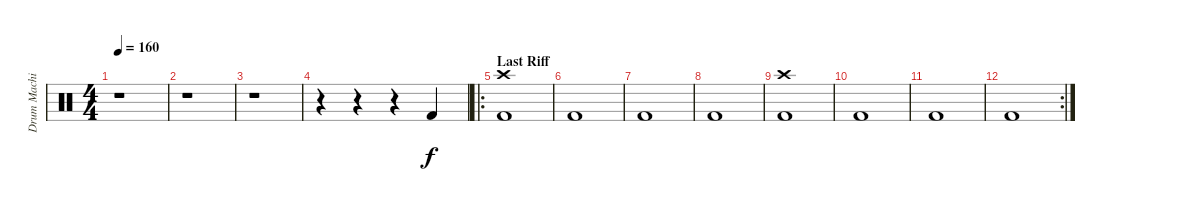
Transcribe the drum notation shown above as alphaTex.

\track ("Drum Machine" "Drum Machi") {instrument percussion}
\staff {score}
\articulation defaults
\ts (4 4)
\tempo 160
\clef neutral
\ks c
r.1{dy f} |
r.1 |
r.1 |
r.4 r.4 r.4 "Kick (hit) 2".4 |
\ro
\section ("" "Last Riff")
("Kick (hit) 2" "Crash high (hit)").1 |
"Kick (hit) 2".1 |
"Kick (hit) 2".1 |
"Kick (hit) 2".1 |
("Kick (hit) 2" "Crash high (hit)").1 |
"Kick (hit) 2".1 |
"Kick (hit) 2".1 |
\rc 2 "Kick (hit) 2".1
